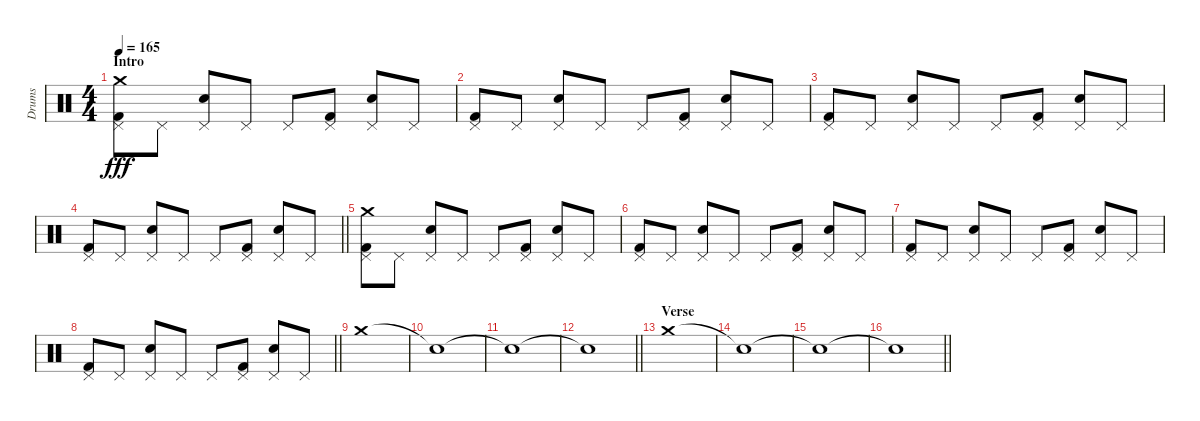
\track ("Drums" "Drums") {instrument percussion}
\staff {score}
\articulation defaults
\ts (4 4)
\section ("" "Intro")
\tempo 165
\clef neutral
\ks c
("Crash medium (hit)" "Pedal Hi-Hat (hit)" "Kick (hit) 2").8{dy fff} "Pedal Hi-Hat (hit)".8 ("Pedal Hi-Hat (hit)" "Snare (hit) 2").8 "Pedal Hi-Hat (hit)".8 "Pedal Hi-Hat (hit)".8 ("Pedal Hi-Hat (hit)" "Kick (hit) 2").8 ("Pedal Hi-Hat (hit)" "Snare (hit) 2").8 "Pedal Hi-Hat (hit)".8 |
("Pedal Hi-Hat (hit)" "Kick (hit) 2").8 "Pedal Hi-Hat (hit)".8 ("Pedal Hi-Hat (hit)" "Snare (hit) 2").8 "Pedal Hi-Hat (hit)".8 "Pedal Hi-Hat (hit)".8 ("Pedal Hi-Hat (hit)" "Kick (hit) 2").8 ("Pedal Hi-Hat (hit)" "Snare (hit) 2").8 "Pedal Hi-Hat (hit)".8 |
("Pedal Hi-Hat (hit)" "Kick (hit) 2").8 "Pedal Hi-Hat (hit)".8 ("Pedal Hi-Hat (hit)" "Snare (hit) 2").8 "Pedal Hi-Hat (hit)".8 "Pedal Hi-Hat (hit)".8 ("Pedal Hi-Hat (hit)" "Kick (hit) 2").8 ("Pedal Hi-Hat (hit)" "Snare (hit) 2").8 "Pedal Hi-Hat (hit)".8 |
\barLineRight lightlight
("Pedal Hi-Hat (hit)" "Kick (hit) 2").8 "Pedal Hi-Hat (hit)".8 ("Pedal Hi-Hat (hit)" "Snare (hit) 2").8 "Pedal Hi-Hat (hit)".8 "Pedal Hi-Hat (hit)".8 ("Pedal Hi-Hat (hit)" "Kick (hit) 2").8 ("Pedal Hi-Hat (hit)" "Snare (hit) 2").8 "Pedal Hi-Hat (hit)".8 |
("Crash medium (hit)" "Pedal Hi-Hat (hit)" "Kick (hit) 2").8 "Pedal Hi-Hat (hit)".8 ("Pedal Hi-Hat (hit)" "Snare (hit) 2").8 "Pedal Hi-Hat (hit)".8 "Pedal Hi-Hat (hit)".8 ("Pedal Hi-Hat (hit)" "Kick (hit) 2").8 ("Pedal Hi-Hat (hit)" "Snare (hit) 2").8 "Pedal Hi-Hat (hit)".8 |
("Pedal Hi-Hat (hit)" "Kick (hit) 2").8 "Pedal Hi-Hat (hit)".8 ("Pedal Hi-Hat (hit)" "Snare (hit) 2").8 "Pedal Hi-Hat (hit)".8 "Pedal Hi-Hat (hit)".8 ("Pedal Hi-Hat (hit)" "Kick (hit) 2").8 ("Pedal Hi-Hat (hit)" "Snare (hit) 2").8 "Pedal Hi-Hat (hit)".8 |
("Pedal Hi-Hat (hit)" "Kick (hit) 2").8 "Pedal Hi-Hat (hit)".8 ("Pedal Hi-Hat (hit)" "Snare (hit) 2").8 "Pedal Hi-Hat (hit)".8 "Pedal Hi-Hat (hit)".8 ("Pedal Hi-Hat (hit)" "Kick (hit) 2").8 ("Pedal Hi-Hat (hit)" "Snare (hit) 2").8 "Pedal Hi-Hat (hit)".8 |
\barLineRight lightlight
("Pedal Hi-Hat (hit)" "Kick (hit) 2").8 "Pedal Hi-Hat (hit)".8 ("Pedal Hi-Hat (hit)" "Snare (hit) 2").8 "Pedal Hi-Hat (hit)".8 "Pedal Hi-Hat (hit)".8 ("Pedal Hi-Hat (hit)" "Kick (hit) 2").8 ("Pedal Hi-Hat (hit)" "Snare (hit) 2").8 "Pedal Hi-Hat (hit)".8 |
"Crash medium (hit)".1 |
"Snare (hit)"{t}.1 |
"Snare (hit)"{t}.1 |
\barLineRight lightlight "Snare (hit)"{t}.1
|
\section ("" "Verse")
"Crash medium (hit)".1 |
"Snare (hit)"{t}.1 |
"Snare (hit)"{t}.1 |
\barLineRight lightlight "Snare (hit)"{t}.1
